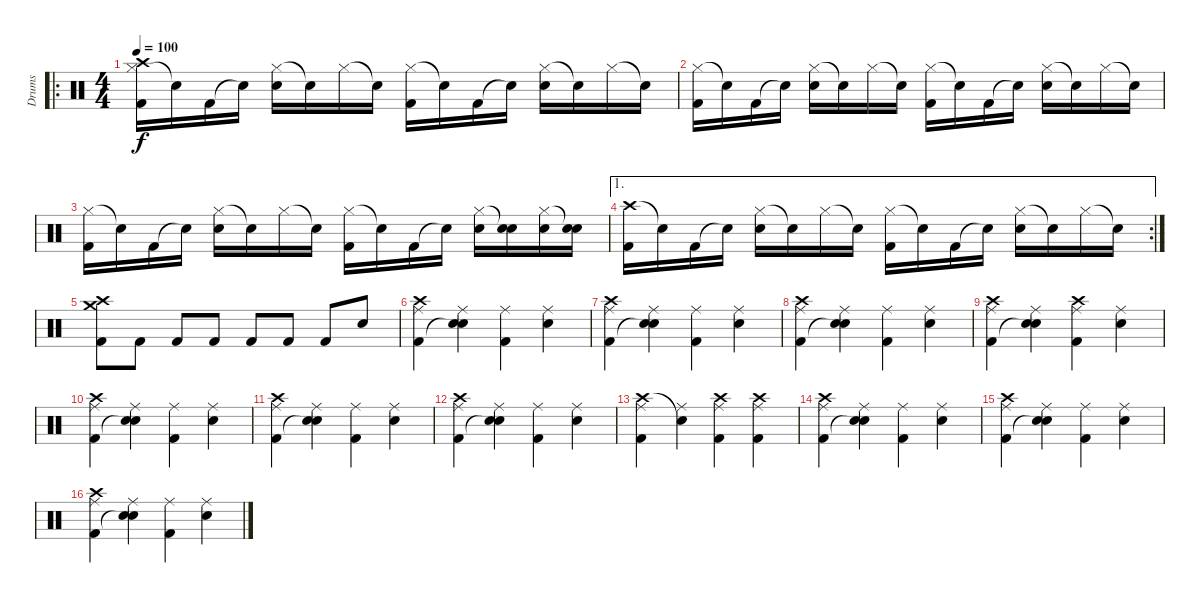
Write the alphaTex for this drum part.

\track ("Drums" "Drums") {instrument percussion}
\staff {score}
\articulation defaults
\ro
\ts (4 4)
\tempo 100
\clef neutral
\ks c
("Hi-Hat (closed)" "Crash high (hit)" "Kick (hit) 2").16{dy f} "Snare (hit)"{t}.16 "Kick (hit) 2".16 "Snare (hit)"{t}.16 ("Hi-Hat (closed)" "Electric Snare (hit)").16 "Snare (hit)"{t}.16 "Hi-Hat (closed)".16 "Snare (hit)"{t}.16 ("Hi-Hat (closed)" "Kick (hit) 2").16 "Snare (hit)"{t}.16 "Kick (hit) 2".16 "Snare (hit)"{t}.16 ("Hi-Hat (closed)" "Electric Snare (hit)").16 "Snare (hit)"{t}.16 "Hi-Hat (closed)".16 "Snare (hit)"{t}.16 |
("Hi-Hat (closed)" "Kick (hit) 2").16 "Snare (hit)"{t}.16 "Kick (hit) 2".16 "Snare (hit)"{t}.16 ("Hi-Hat (closed)" "Electric Snare (hit)").16 "Snare (hit)"{t}.16 "Hi-Hat (closed)".16 "Snare (hit)"{t}.16 ("Hi-Hat (closed)" "Kick (hit) 2").16 "Snare (hit)"{t}.16 "Kick (hit) 2".16 "Snare (hit)"{t}.16 ("Hi-Hat (closed)" "Electric Snare (hit)").16 "Snare (hit)"{t}.16 "Hi-Hat (closed)".16 "Snare (hit)"{t}.16 |
("Hi-Hat (closed)" "Kick (hit) 2").16 "Snare (hit)"{t}.16 "Kick (hit) 2".16 "Snare (hit)"{t}.16 ("Hi-Hat (closed)" "Electric Snare (hit)").16 "Snare (hit)"{t}.16 "Hi-Hat (closed)".16 "Snare (hit)"{t}.16 ("Hi-Hat (closed)" "Kick (hit) 2").16 "Snare (hit)"{t}.16 "Kick (hit) 2".16 "Snare (hit)"{t}.16 ("Hi-Hat (closed)" "Electric Snare (hit)").16 ("Snare (hit)"{t} "Electric Snare (hit)").16 ("Hi-Hat (closed)" "Electric Snare (hit)").16 ("Snare (hit)"{t} "Electric Snare (hit)").16 |
\ae 1
\rc 2
("Crash high (hit)" "Kick (hit) 2").16 "Snare (hit)"{t}.16 "Kick (hit) 2".16 "Snare (hit)"{t}.16 ("Hi-Hat (closed)" "Electric Snare (hit)").16 "Snare (hit)"{t}.16 "Hi-Hat (closed)".16 "Snare (hit)"{t}.16 ("Hi-Hat (closed)" "Kick (hit) 2").16 "Snare (hit)"{t}.16 "Kick (hit) 2".16 "Snare (hit)"{t}.16 ("Hi-Hat (closed)" "Electric Snare (hit)").16 "Snare (hit)"{t}.16 "Hi-Hat (closed)".16 "Snare (hit)"{t}.16 |
("Crash high (hit)" "Crash medium (hit)" "Kick (hit) 2").8 "Kick (hit) 2".8 "Kick (hit) 2".8 "Kick (hit) 2".8 "Kick (hit) 2".8 "Kick (hit) 2".8 "Kick (hit) 2".8 "Electric Snare (hit)".8 |
("Ride (middle)" "Crash high (hit)" "Kick (hit) 2").4 ("Ride (middle)" "Electric Snare (hit)" "Snare (hit)"{t}).4 ("Ride (middle)" "Kick (hit) 2").4 ("Ride (middle)" "Electric Snare (hit)").4 |
("Ride (middle)" "Crash high (hit)" "Kick (hit) 2").4 ("Ride (middle)" "Electric Snare (hit)" "Snare (hit)"{t}).4 ("Ride (middle)" "Kick (hit) 2").4 ("Ride (middle)" "Electric Snare (hit)").4 |
("Ride (middle)" "Crash high (hit)" "Kick (hit) 2").4 ("Ride (middle)" "Electric Snare (hit)" "Snare (hit)"{t}).4 ("Ride (middle)" "Kick (hit) 2").4 ("Ride (middle)" "Electric Snare (hit)").4 |
("Ride (middle)" "Crash high (hit)" "Kick (hit) 2").4 ("Ride (middle)" "Electric Snare (hit)" "Snare (hit)"{t}).4 ("Ride (middle)" "Crash high (hit)" "Kick (hit) 2").4 ("Ride (middle)" "Electric Snare (hit)").4 |
("Ride (middle)" "Crash high (hit)" "Kick (hit) 2").4 ("Ride (middle)" "Electric Snare (hit)" "Snare (hit)"{t}).4 ("Ride (middle)" "Kick (hit) 2").4 ("Ride (middle)" "Electric Snare (hit)").4 |
("Ride (middle)" "Crash high (hit)" "Kick (hit) 2").4 ("Ride (middle)" "Electric Snare (hit)" "Snare (hit)"{t}).4 ("Ride (middle)" "Kick (hit) 2").4 ("Ride (middle)" "Electric Snare (hit)").4 |
("Ride (middle)" "Crash high (hit)" "Kick (hit) 2").4 ("Ride (middle)" "Electric Snare (hit)" "Snare (hit)"{t}).4 ("Ride (middle)" "Kick (hit) 2").4 ("Ride (middle)" "Electric Snare (hit)").4 |
("Ride (middle)" "Crash high (hit)" "Kick (hit) 2").4 ("Ride (middle)" "Snare (hit)"{t}).4 ("Ride (middle)" "Crash high (hit)" "Kick (hit) 2").4 ("Ride (middle)" "Crash high (hit)" "Kick (hit) 2").4 |
("Ride (middle)" "Crash high (hit)" "Kick (hit) 2").4 ("Ride (middle)" "Electric Snare (hit)" "Snare (hit)"{t}).4 ("Ride (middle)" "Kick (hit) 2").4 ("Ride (middle)" "Electric Snare (hit)").4 |
("Ride (middle)" "Crash high (hit)" "Kick (hit) 2").4 ("Ride (middle)" "Electric Snare (hit)" "Snare (hit)"{t}).4 ("Ride (middle)" "Kick (hit) 2").4 ("Ride (middle)" "Electric Snare (hit)").4 |
("Ride (middle)" "Crash high (hit)" "Kick (hit) 2").4 ("Ride (middle)" "Electric Snare (hit)" "Snare (hit)"{t}).4 ("Ride (middle)" "Kick (hit) 2").4 ("Ride (middle)" "Electric Snare (hit)").4
